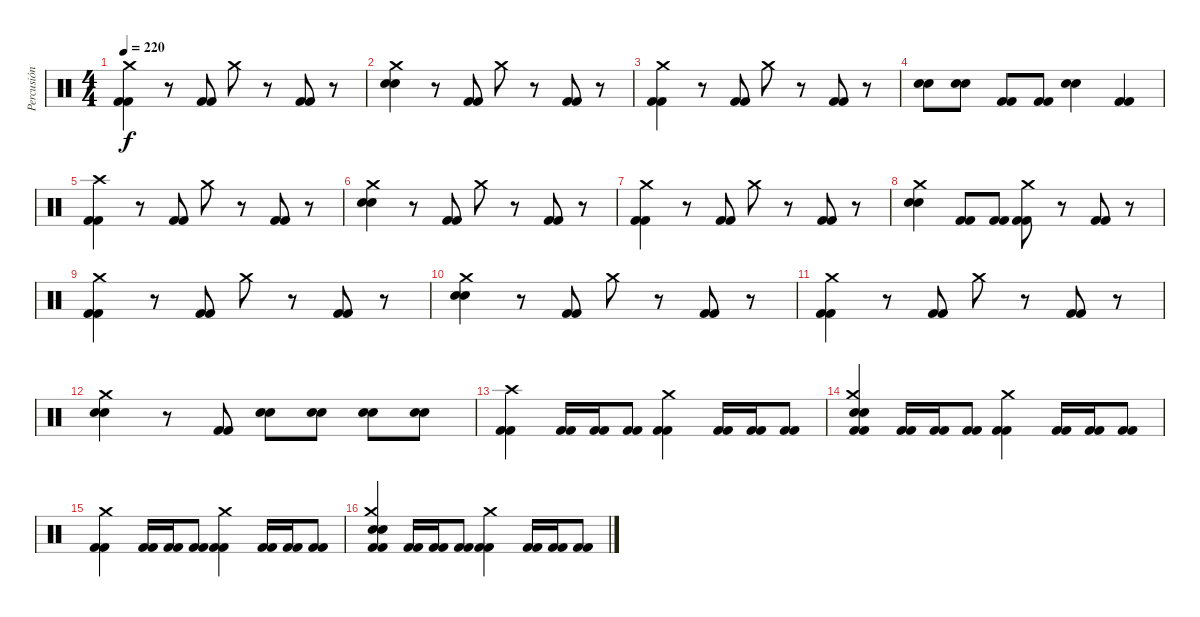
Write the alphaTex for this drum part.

\track ("Percusión" "Percusión") {instrument percussion}
\staff {score}
\articulation defaults
\ts (4 4)
\tempo 220
\clef neutral
\ks c
("Kick (hit) 2" "Kick (hit) 2" "Crash medium (hit)").4{dy f} r.8 ("Kick (hit) 2" "Kick (hit) 2").8 "Crash medium (hit)".8 r.8 ("Kick (hit) 2" "Kick (hit) 2").8 r.8 |
("Electric Snare (hit)" "Electric Snare (hit)" "Crash medium (hit)").4 r.8 ("Kick (hit) 2" "Kick (hit) 2").8 "Crash medium (hit)".8 r.8 ("Kick (hit) 2" "Kick (hit) 2").8 r.8 |
("Kick (hit) 2" "Kick (hit) 2" "Crash medium (hit)").4 r.8 ("Kick (hit) 2" "Kick (hit) 2").8 "Crash medium (hit)".8 r.8 ("Kick (hit) 2" "Kick (hit) 2").8 r.8 |
("Electric Snare (hit)" "Electric Snare (hit)").8 ("Electric Snare (hit)" "Electric Snare (hit)").8 ("Kick (hit) 2" "Kick (hit) 2").8 ("Kick (hit) 2" "Kick (hit) 2").8 ("Electric Snare (hit)" "Electric Snare (hit)").4 ("Kick (hit) 2" "Kick (hit) 2").4 |
("Kick (hit) 2" "Kick (hit) 2" "Crash high (hit)").4 r.8 ("Kick (hit) 2" "Kick (hit) 2").8 "Crash medium (hit)".8 r.8 ("Kick (hit) 2" "Kick (hit) 2").8 r.8 |
("Electric Snare (hit)" "Electric Snare (hit)" "Crash medium (hit)").4 r.8 ("Kick (hit) 2" "Kick (hit) 2").8 "Crash medium (hit)".8 r.8 ("Kick (hit) 2" "Kick (hit) 2").8 r.8 |
("Kick (hit) 2" "Kick (hit) 2" "Crash medium (hit)").4 r.8 ("Kick (hit) 2" "Kick (hit) 2").8 "Crash medium (hit)".8 r.8 ("Kick (hit) 2" "Kick (hit) 2").8 r.8 |
("Electric Snare (hit)" "Electric Snare (hit)" "Crash medium (hit)").4 ("Kick (hit) 2" "Kick (hit) 2").8 ("Kick (hit) 2" "Kick (hit) 2").8 ("Kick (hit) 2" "Kick (hit) 2" "Crash medium (hit)").8 r.8 ("Kick (hit) 2" "Kick (hit) 2").8 r.8 |
("Kick (hit) 2" "Kick (hit) 2" "Crash medium (hit)").4 r.8 ("Kick (hit) 2" "Kick (hit) 2").8 "Crash medium (hit)".8 r.8 ("Kick (hit) 2" "Kick (hit) 2").8 r.8 |
("Electric Snare (hit)" "Electric Snare (hit)" "Crash medium (hit)").4 r.8 ("Kick (hit) 2" "Kick (hit) 2").8 "Crash medium (hit)".8 r.8 ("Kick (hit) 2" "Kick (hit) 2").8 r.8 |
("Kick (hit) 2" "Kick (hit) 2" "Crash medium (hit)").4 r.8 ("Kick (hit) 2" "Kick (hit) 2").8 "Crash medium (hit)".8 r.8 ("Kick (hit) 2" "Kick (hit) 2").8 r.8 |
("Electric Snare (hit)" "Electric Snare (hit)" "Crash medium (hit)").4 r.8 ("Kick (hit) 2" "Kick (hit) 2").8 ("Electric Snare (hit)" "Electric Snare (hit)").8 ("Electric Snare (hit)" "Electric Snare (hit)").8 ("Electric Snare (hit)" "Electric Snare (hit)").8 ("Electric Snare (hit)" "Electric Snare (hit)").8 |
("Kick (hit) 2" "Kick (hit) 2" "Crash high (hit)").4 ("Kick (hit) 2" "Kick (hit) 2").16 ("Kick (hit) 2" "Kick (hit) 2").16 ("Kick (hit) 2" "Kick (hit) 2").8 ("Kick (hit) 2" "Kick (hit) 2" "Crash medium (hit)").4 ("Kick (hit) 2" "Kick (hit) 2").16 ("Kick (hit) 2" "Kick (hit) 2").16 ("Kick (hit) 2" "Kick (hit) 2").8 |
("Kick (hit) 2" "Kick (hit) 2" "Electric Snare (hit)" "Electric Snare (hit)" "Crash medium (hit)").4 ("Kick (hit) 2" "Kick (hit) 2").16 ("Kick (hit) 2" "Kick (hit) 2").16 ("Kick (hit) 2" "Kick (hit) 2").8 ("Kick (hit) 2" "Kick (hit) 2" "Crash medium (hit)").4 ("Kick (hit) 2" "Kick (hit) 2").16 ("Kick (hit) 2" "Kick (hit) 2").16 ("Kick (hit) 2" "Kick (hit) 2").8 |
("Kick (hit) 2" "Kick (hit) 2" "Crash medium (hit)").4 ("Kick (hit) 2" "Kick (hit) 2").16 ("Kick (hit) 2" "Kick (hit) 2").16 ("Kick (hit) 2" "Kick (hit) 2").8 ("Kick (hit) 2" "Kick (hit) 2" "Crash medium (hit)").4 ("Kick (hit) 2" "Kick (hit) 2").16 ("Kick (hit) 2" "Kick (hit) 2").16 ("Kick (hit) 2" "Kick (hit) 2").8 |
("Kick (hit) 2" "Kick (hit) 2" "Electric Snare (hit)" "Electric Snare (hit)" "Crash medium (hit)").4 ("Kick (hit) 2" "Kick (hit) 2").16 ("Kick (hit) 2" "Kick (hit) 2").16 ("Kick (hit) 2" "Kick (hit) 2").8 ("Kick (hit) 2" "Kick (hit) 2" "Crash medium (hit)").4 ("Kick (hit) 2" "Kick (hit) 2").16 ("Kick (hit) 2" "Kick (hit) 2").16 ("Kick (hit) 2" "Kick (hit) 2").8
